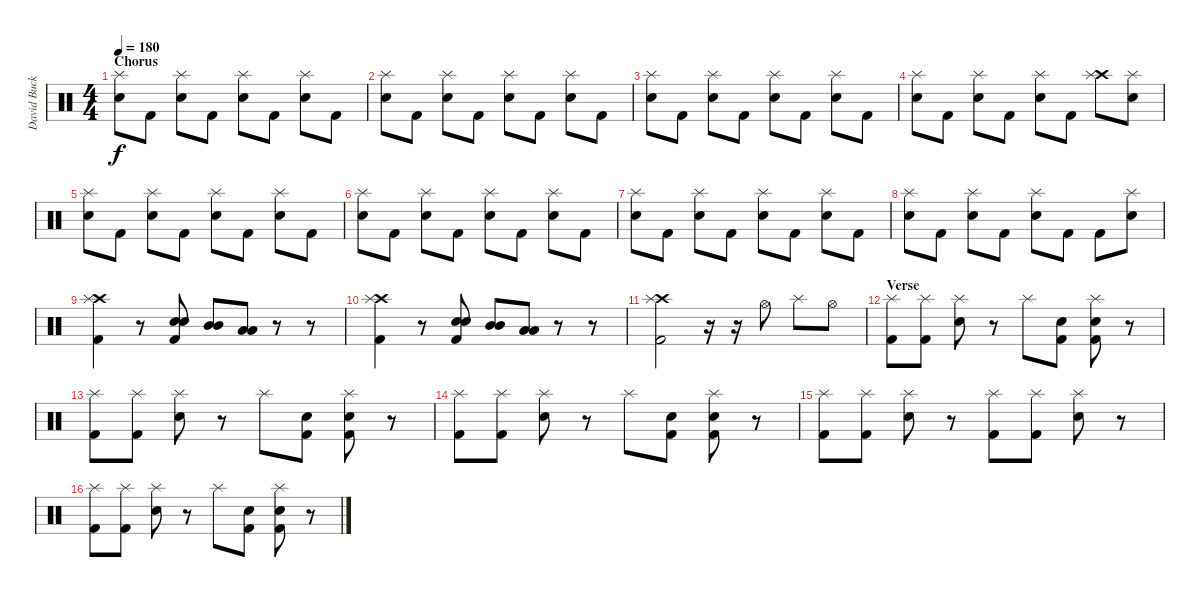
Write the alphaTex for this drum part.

\track ("David Buckner" "David Buck") {instrument percussion}
\staff {score}
\articulation defaults
\ts (4 4)
\section ("" "Chorus")
\tempo 180
\clef neutral
\ks c
("Splash (hit)" "Snare (hit) 2").8{dy f} "Kick (hit) 2".8 ("Splash (hit)" "Snare (hit) 2").8 "Kick (hit) 2".8 ("Splash (hit)" "Snare (hit) 2").8 "Kick (hit) 2".8 ("Splash (hit)" "Snare (hit) 2").8 "Kick (hit) 2".8 |
("Splash (hit)" "Snare (hit) 2").8 "Kick (hit) 2".8 ("Splash (hit)" "Snare (hit) 2").8 "Kick (hit) 2".8 ("Splash (hit)" "Snare (hit) 2").8 "Kick (hit) 2".8 ("Splash (hit)" "Snare (hit) 2").8 "Kick (hit) 2".8 |
("Splash (hit)" "Snare (hit) 2").8 "Kick (hit) 2".8 ("Splash (hit)" "Snare (hit) 2").8 "Kick (hit) 2".8 ("Splash (hit)" "Snare (hit) 2").8 "Kick (hit) 2".8 ("Splash (hit)" "Snare (hit) 2").8 "Kick (hit) 2".8 |
("Splash (hit)" "Snare (hit) 2").8 "Kick (hit) 2".8 ("Splash (hit)" "Snare (hit) 2").8 "Kick (hit) 2".8 ("Splash (hit)" "Snare (hit) 2").8 "Kick (hit) 2".8 ("Crash high (hit)" "Splash (hit)").8 ("Splash (hit)" "Snare (hit) 2").8 |
("Splash (hit)" "Snare (hit) 2").8 "Kick (hit) 2".8 ("Splash (hit)" "Snare (hit) 2").8 "Kick (hit) 2".8 ("Splash (hit)" "Snare (hit) 2").8 "Kick (hit) 2".8 ("Splash (hit)" "Snare (hit) 2").8 "Kick (hit) 2".8 |
("Splash (hit)" "Snare (hit) 2").8 "Kick (hit) 2".8 ("Splash (hit)" "Snare (hit) 2").8 "Kick (hit) 2".8 ("Splash (hit)" "Snare (hit) 2").8 "Kick (hit) 2".8 ("Splash (hit)" "Snare (hit) 2").8 "Kick (hit) 2".8 |
("Splash (hit)" "Snare (hit) 2").8 "Kick (hit) 2".8 ("Splash (hit)" "Snare (hit) 2").8 "Kick (hit) 2".8 ("Splash (hit)" "Snare (hit) 2").8 "Kick (hit) 2".8 ("Splash (hit)" "Snare (hit) 2").8 "Kick (hit) 2".8 |
("Splash (hit)" "Snare (hit) 2").8 "Kick (hit) 2".8 ("Splash (hit)" "Snare (hit) 2").8 "Kick (hit) 2".8 ("Splash (hit)" "Snare (hit) 2").8 "Kick (hit) 2".8 "Kick (hit) 2".8 ("Splash (hit)" "Snare (hit) 2").8 |
("Crash high (hit)" "Splash (hit)" "Kick (hit) 2").4 r.8 ("Snare (hit) 2" "Snare (hit) 2" "Kick (hit) 2").8 ("Mid Tom (hit)" "Mid Tom (hit)").8 ("Low Tom (hit)" "Low Tom (hit)").8 r.8 r.8 |
("Crash high (hit)" "Splash (hit)" "Kick (hit) 2").4 r.8 ("Snare (hit) 2" "Snare (hit) 2" "Kick (hit) 2").8 ("Mid Tom (hit)" "Mid Tom (hit)").8 ("Low Tom (hit)" "Low Tom (hit)").8 r.8 r.8 |
("Crash high (hit)" "Splash (hit)" "Kick (hit) 2").2 r.16 r.16 "Hi-Hat (open)".8 "Splash (hit)".8 "Hi-Hat (open)".8 |
\section ("" "Verse")
("Splash (hit)" "Kick (hit) 2").8 ("Splash (hit)" "Kick (hit) 2").8 ("Splash (hit)" "Snare (hit) 2").8 r.8 "Splash (hit)".8 ("Snare (hit) 2" "Kick (hit) 2").8 ("Splash (hit)" "Snare (hit) 2" "Kick (hit) 2").8 r.8 |
("Splash (hit)" "Kick (hit) 2").8 ("Splash (hit)" "Kick (hit) 2").8 ("Splash (hit)" "Snare (hit) 2").8 r.8 "Splash (hit)".8 ("Snare (hit) 2" "Kick (hit) 2").8 ("Splash (hit)" "Snare (hit) 2" "Kick (hit) 2").8 r.8 |
("Splash (hit)" "Kick (hit) 2").8 ("Splash (hit)" "Kick (hit) 2").8 ("Splash (hit)" "Snare (hit) 2").8 r.8 "Splash (hit)".8 ("Snare (hit) 2" "Kick (hit) 2").8 ("Splash (hit)" "Snare (hit) 2" "Kick (hit) 2").8 r.8 |
("Splash (hit)" "Kick (hit) 2").8 ("Splash (hit)" "Kick (hit) 2").8 ("Splash (hit)" "Snare (hit) 2").8 r.8 ("Splash (hit)" "Kick (hit) 2").8 ("Splash (hit)" "Kick (hit) 2").8 ("Splash (hit)" "Snare (hit) 2").8 r.8 |
("Splash (hit)" "Kick (hit) 2").8 ("Splash (hit)" "Kick (hit) 2").8 ("Splash (hit)" "Snare (hit) 2").8 r.8 "Splash (hit)".8 ("Snare (hit) 2" "Kick (hit) 2").8 ("Splash (hit)" "Snare (hit) 2" "Kick (hit) 2").8 r.8
